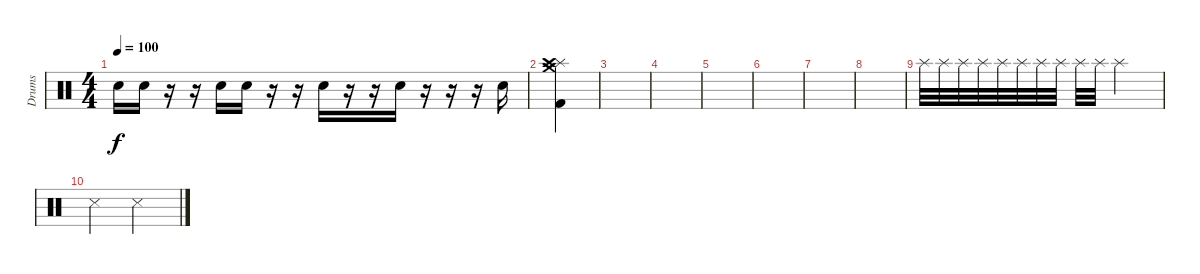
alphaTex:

\track ("Drums" "Drums") {instrument percussion}
\staff {score}
\articulation defaults
\ts (4 4)
\tempo 100
\clef neutral
\ks c "Snare (hit) 2".16{dy f} "Snare (hit) 2".16
r.16 r.16 "Snare (hit) 2".16 "Snare (hit) 2".16 r.16 r.16 "Snare (hit) 2".16 r.16 r.16 "Snare (hit) 2".16 r.16 r.16 r.16 "Snare (hit) 2".16 |
("Splash (hit)" "Crash high (hit)" "Crash medium (hit)" "Kick (hit) 2").4 |
|
|
|
|
|
|
"Splash (hit)".32{volume 0} "Splash (hit)".32 "Splash (hit)".32 "Splash (hit)".32 "Splash (hit)".32 "Splash (hit)".32 "Splash (hit)".32 "Splash (hit)".32 "Splash (hit)".32 "Splash (hit)".32 "Splash (hit)".2{volume 16} |
"Metronome (hit)".2 "Metronome (hit)".2
